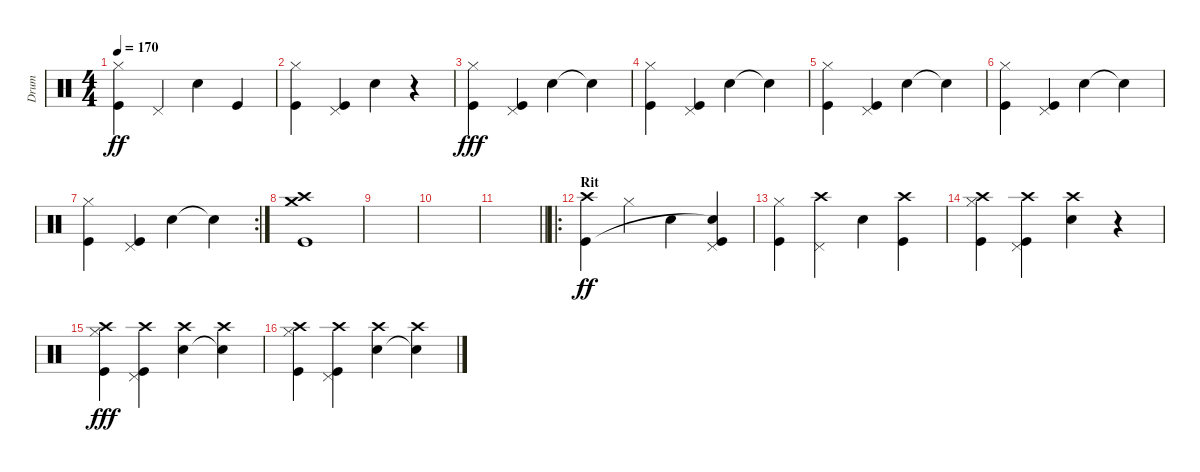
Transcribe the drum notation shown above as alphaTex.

\track ("Drum" "Drum") {instrument percussion}
\staff {score}
\articulation defaults
\ts (4 4)
\tempo 170
\clef neutral
\ks c
("Hi-Hat (closed)" "Kick (hit)").4{dy ff} "Pedal Hi-Hat (hit)".4 "Snare (hit) 2".4 "Kick (hit)".4 |
("Hi-Hat (closed)" "Kick (hit)").4 ("Pedal Hi-Hat (hit)" "Kick (hit)").4 "Snare (hit) 2".4 r.4 |
("Hi-Hat (closed)" "Kick (hit)").4{dy fff} ("Pedal Hi-Hat (hit)" "Kick (hit)").4 "Snare (hit) 2".4 "Snare (hit)"{t}.4 |
("Hi-Hat (closed)" "Kick (hit)").4 ("Pedal Hi-Hat (hit)" "Kick (hit)").4 "Snare (hit) 2".4 "Snare (hit)"{t}.4 |
("Hi-Hat (closed)" "Kick (hit)").4 ("Pedal Hi-Hat (hit)" "Kick (hit)").4 "Snare (hit) 2".4 "Snare (hit)"{t}.4 |
("Hi-Hat (closed)" "Kick (hit)").4 ("Pedal Hi-Hat (hit)" "Kick (hit)").4 "Snare (hit) 2".4 "Snare (hit)"{t}.4 |
\rc 2
("Hi-Hat (closed)" "Kick (hit)").4 ("Pedal Hi-Hat (hit)" "Kick (hit)").4 "Snare (hit) 2".4 "Snare (hit)"{t}.4 |
("Crash medium (hit)" "Crash high (hit)" "Kick (hit)").1 |
|
|
\barLineRight lightlight
|
\ro
\section ("" "Rit")
("Crash high (hit)" "Kick (hit)").4{dy ff} "Hi-Hat (closed)".4 "Snare (hit) 2".4 ("Pedal Hi-Hat (hit)" "Snare (hit)"{t} "Kick (hit)").4 |
("Hi-Hat (closed)" "Kick (hit)").4 ("Crash high (hit)" "Pedal Hi-Hat (hit)").4 "Snare (hit) 2".4 ("Crash high (hit)" "Kick (hit)").4 |
("Crash high (hit)" "Hi-Hat (closed)" "Kick (hit)").4 ("Crash high (hit)" "Pedal Hi-Hat (hit)" "Kick (hit)").4 ("Crash high (hit)" "Snare (hit) 2").4 r.4 |
("Crash high (hit)" "Hi-Hat (closed)" "Kick (hit)").4{dy fff} ("Crash high (hit)" "Pedal Hi-Hat (hit)" "Kick (hit)").4 ("Crash high (hit)" "Snare (hit) 2").4 ("Crash high (hit)" "Snare (hit)"{t}).4 |
("Crash high (hit)" "Hi-Hat (closed)" "Kick (hit)").4 ("Crash high (hit)" "Pedal Hi-Hat (hit)" "Kick (hit)").4 ("Crash high (hit)" "Snare (hit) 2").4 ("Crash high (hit)" "Snare (hit)"{t}).4
